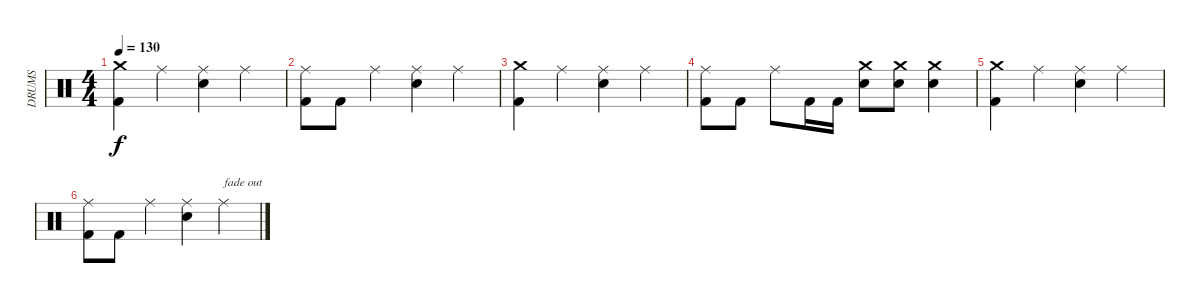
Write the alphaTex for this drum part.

\track ("DRUMS" "DRUMS") {instrument percussion}
\staff {score}
\articulation defaults
\ts (4 4)
\tempo 130
\clef neutral
\ks c
("Crash medium (hit)" "Kick (hit) 2").4{dy f} "Ride (middle)".4 ("Ride (middle)" "Snare (hit) 2").4 "Ride (middle)".4 |
("Ride (middle)" "Kick (hit) 2").8{volume 3} "Kick (hit) 2".8 "Ride (middle)".4 ("Ride (middle)" "Snare (hit) 2").4 "Ride (middle)".4 |
("Crash medium (hit)" "Kick (hit) 2").4 "Ride (middle)".4 ("Ride (middle)" "Snare (hit) 2").4 "Ride (middle)".4 |
("Ride (middle)" "Kick (hit) 2").8 "Kick (hit) 2".8 "Ride (middle)".8 "Kick (hit) 2".16 "Kick (hit) 2".16 ("Crash medium (hit)" "Snare (hit) 2").8{volume 0} ("Crash medium (hit)" "Snare (hit) 2").8 ("Crash medium (hit)" "Snare (hit) 2").4 |
("Crash medium (hit)" "Kick (hit) 2").4 "Ride (middle)".4 ("Ride (middle)" "Snare (hit) 2").4 "Ride (middle)".4 |
("Ride (middle)" "Kick (hit) 2").8 "Kick (hit) 2".8 "Ride (middle)".4 ("Ride (middle)" "Snare (hit) 2").4 "Ride (middle)".4{txt "fade out"}
